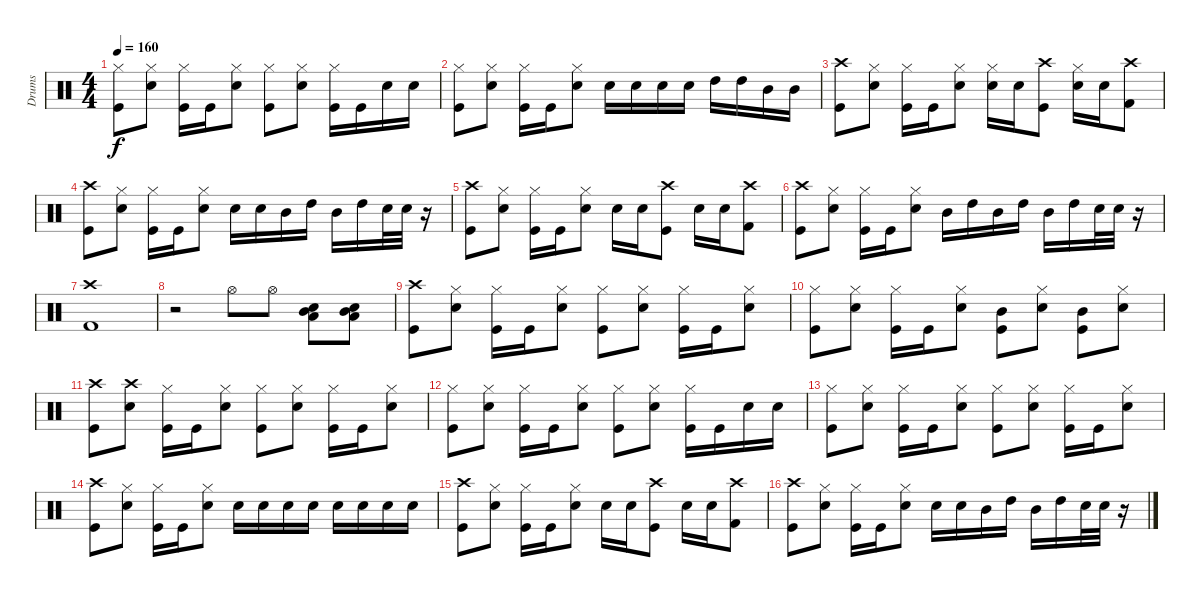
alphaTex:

\track ("Drums" "Drums") {instrument percussion}
\staff {score}
\articulation defaults
\ts (4 4)
\tempo 160
\clef neutral
\ks c
("Hi-Hat (closed)" "Kick (hit)").8{dy f} ("Hi-Hat (closed)" "Electric Snare (hit)").8 ("Hi-Hat (closed)" "Kick (hit)").16 "Kick (hit)".16 ("Hi-Hat (closed)" "Electric Snare (hit)").8 ("Hi-Hat (closed)" "Kick (hit)").8 ("Hi-Hat (closed)" "Electric Snare (hit)").8 ("Hi-Hat (closed)" "Kick (hit)").16 "Kick (hit)".16 "Electric Snare (hit)".16 "Electric Snare (hit)".16 |
("Hi-Hat (closed)" "Kick (hit)").8 ("Hi-Hat (closed)" "Electric Snare (hit)").8 ("Hi-Hat (closed)" "Kick (hit)").16 "Kick (hit)".16 ("Hi-Hat (closed)" "Electric Snare (hit)").8 "Electric Snare (hit)".16 "Electric Snare (hit)".16 "Electric Snare (hit)".16 "Electric Snare (hit)".16 "High Tom (hit)".16 "High Tom (hit)".16 "Mid Tom (hit)".16 "Mid Tom (hit)".16 |
("Crash high (hit)" "Kick (hit)").8 ("Hi-Hat (closed)" "Electric Snare (hit)").8 ("Hi-Hat (closed)" "Kick (hit)").16 "Kick (hit)".16 ("Hi-Hat (closed)" "Electric Snare (hit)").8 ("Hi-Hat (closed)" "Electric Snare (hit)").16 "Electric Snare (hit)".16 ("Crash high (hit)" "Kick (hit)").8 ("Hi-Hat (closed)" "Electric Snare (hit)").16 "Electric Snare (hit)".16 ("Crash high (hit)" "Kick (hit) 2").8 |
("Crash high (hit)" "Kick (hit)").8 ("Hi-Hat (closed)" "Electric Snare (hit)").8 ("Hi-Hat (closed)" "Kick (hit)").16 "Kick (hit)".16 ("Hi-Hat (closed)" "Electric Snare (hit)").8 "Electric Snare (hit)".16 "Electric Snare (hit)".16 "Mid Tom (hit)".16 "High Tom (hit)".16 "Mid Tom (hit)".16 "High Tom (hit)".16 "Electric Snare (hit)".32 "Electric Snare (hit)".32 r.16 |
("Crash high (hit)" "Kick (hit)").8 ("Hi-Hat (closed)" "Electric Snare (hit)").8 ("Hi-Hat (closed)" "Kick (hit)").16 "Kick (hit)".16 ("Hi-Hat (closed)" "Electric Snare (hit)").8 "Electric Snare (hit)".16 "Electric Snare (hit)".16 ("Crash high (hit)" "Kick (hit)").8 "Electric Snare (hit)".16 "Electric Snare (hit)".16 ("Crash high (hit)" "Kick (hit) 2").8 |
("Crash high (hit)" "Kick (hit)").8 ("Hi-Hat (closed)" "Electric Snare (hit)").8 ("Hi-Hat (closed)" "Kick (hit)").16 "Kick (hit)".16 ("Hi-Hat (closed)" "Electric Snare (hit)").8 "Mid Tom (hit)".16 "High Tom (hit)".16 "Mid Tom (hit)".16 "High Tom (hit)".16 "Mid Tom (hit)".16 "High Tom (hit)".16 "Electric Snare (hit)".32 "Electric Snare (hit)".32 r.16 |
("Crash high (hit)" "Kick (hit) 2").1 |
r.2 "Hi-Hat (open)".8 "Hi-Hat (open)".8 ("Electric Snare (hit)" "Low Tom (hit)" "Mid Tom (hit)").8 ("Electric Snare (hit)" "Low Tom (hit)" "Mid Tom (hit)").8 |
("Crash high (hit)" "Kick (hit)").8 ("Hi-Hat (closed)" "Electric Snare (hit)").8 ("Hi-Hat (closed)" "Kick (hit)").16 "Kick (hit)".16 ("Hi-Hat (closed)" "Electric Snare (hit)").8 ("Hi-Hat (closed)" "Kick (hit)").8 ("Hi-Hat (closed)" "Electric Snare (hit)").8 ("Hi-Hat (closed)" "Kick (hit)").16 "Kick (hit)".16 ("Hi-Hat (closed)" "Electric Snare (hit)").8 |
("Hi-Hat (closed)" "Kick (hit)").8 ("Hi-Hat (closed)" "Electric Snare (hit)").8 ("Hi-Hat (closed)" "Kick (hit)").16 "Kick (hit)".16 ("Hi-Hat (closed)" "Electric Snare (hit)").8 ("Mid Tom (hit)" "Kick (hit)").8 ("Hi-Hat (closed)" "Electric Snare (hit)").8 ("Mid Tom (hit)" "Kick (hit)").8 ("Hi-Hat (closed)" "Electric Snare (hit)").8 |
("Crash high (hit)" "Kick (hit)").8 ("Crash high (hit)" "Electric Snare (hit)").8 ("Hi-Hat (closed)" "Kick (hit)").16 "Kick (hit)".16 ("Hi-Hat (closed)" "Electric Snare (hit)").8 ("Hi-Hat (closed)" "Kick (hit)").8 ("Hi-Hat (closed)" "Electric Snare (hit)").8 ("Hi-Hat (closed)" "Kick (hit)").16 "Kick (hit)".16 ("Hi-Hat (closed)" "Electric Snare (hit)").8 |
("Hi-Hat (closed)" "Kick (hit)").8 ("Hi-Hat (closed)" "Electric Snare (hit)").8 ("Hi-Hat (closed)" "Kick (hit)").16 "Kick (hit)".16 ("Hi-Hat (closed)" "Electric Snare (hit)").8 ("Hi-Hat (closed)" "Kick (hit)").8 ("Hi-Hat (closed)" "Electric Snare (hit)").8 ("Hi-Hat (closed)" "Kick (hit)").16 "Kick (hit)".16 "Electric Snare (hit)".16 "Electric Snare (hit)".16 |
("Hi-Hat (closed)" "Kick (hit)").8 ("Hi-Hat (closed)" "Electric Snare (hit)").8 ("Hi-Hat (closed)" "Kick (hit)").16 "Kick (hit)".16 ("Hi-Hat (closed)" "Electric Snare (hit)").8 ("Hi-Hat (closed)" "Kick (hit)").8 ("Hi-Hat (closed)" "Electric Snare (hit)").8 ("Hi-Hat (closed)" "Kick (hit)").16 "Kick (hit)".16 ("Hi-Hat (closed)" "Electric Snare (hit)").8 |
("Crash high (hit)" "Kick (hit)").8 ("Hi-Hat (closed)" "Electric Snare (hit)").8 ("Hi-Hat (closed)" "Kick (hit)").16 "Kick (hit)".16 ("Hi-Hat (closed)" "Electric Snare (hit)").8 "Electric Snare (hit)".16 "Electric Snare (hit)".16 "Electric Snare (hit)".16 "Electric Snare (hit)".16 "Electric Snare (hit)".16 "Electric Snare (hit)".16 "Electric Snare (hit)".16 "Electric Snare (hit)".16 |
("Crash high (hit)" "Kick (hit)").8 ("Hi-Hat (closed)" "Electric Snare (hit)").8 ("Hi-Hat (closed)" "Kick (hit)").16 "Kick (hit)".16 ("Hi-Hat (closed)" "Electric Snare (hit)").8 "Electric Snare (hit)".16 "Electric Snare (hit)".16 ("Crash high (hit)" "Kick (hit)").8 "Electric Snare (hit)".16 "Electric Snare (hit)".16 ("Crash high (hit)" "Kick (hit) 2").8 |
("Crash high (hit)" "Kick (hit)").8 ("Hi-Hat (closed)" "Electric Snare (hit)").8 ("Hi-Hat (closed)" "Kick (hit)").16 "Kick (hit)".16 ("Hi-Hat (closed)" "Electric Snare (hit)").8 "Electric Snare (hit)".16 "Electric Snare (hit)".16 "Mid Tom (hit)".16 "High Tom (hit)".16 "Mid Tom (hit)".16 "High Tom (hit)".16 "Electric Snare (hit)".32 "Electric Snare (hit)".32 r.16
